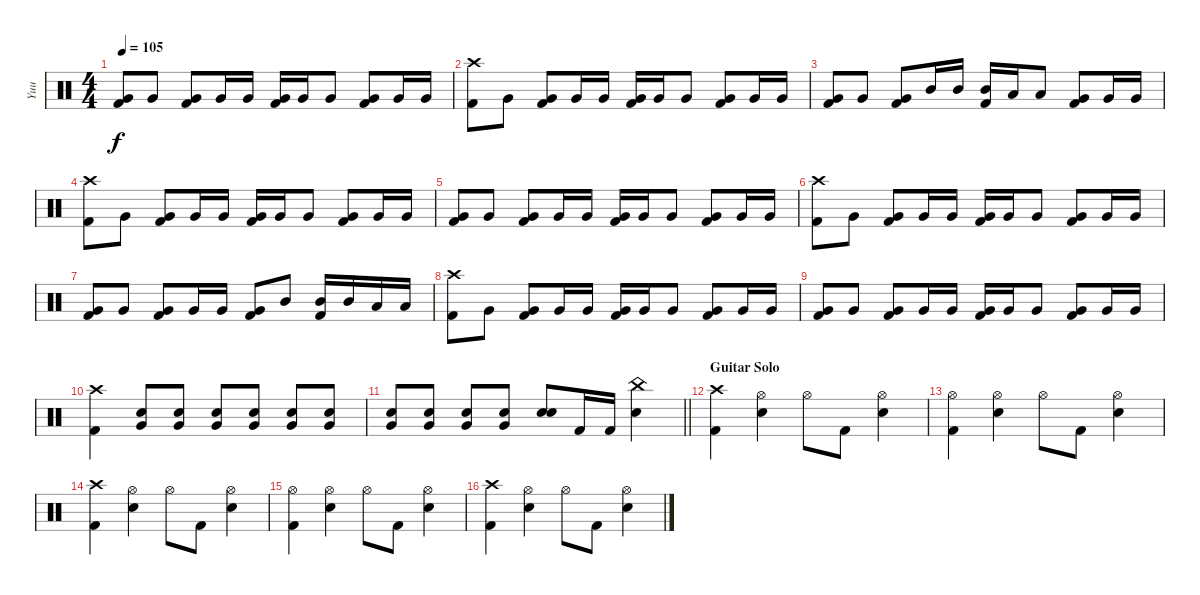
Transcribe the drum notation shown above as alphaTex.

\track ("Yuu" "Yuu") {instrument percussion}
\staff {score}
\articulation defaults
\ts (4 4)
\tempo 105
\clef neutral
\ks c
("Very Low Tom (hit)" "Kick (hit) 2").8{dy f} "Very Low Tom (hit)".8 ("Very Low Tom (hit)" "Kick (hit) 2").8 "Very Low Tom (hit)".16 "Very Low Tom (hit)".16 ("Very Low Tom (hit)" "Kick (hit) 2").16 "Very Low Tom (hit)".16 "Very Low Tom (hit)".8 ("Very Low Tom (hit)" "Kick (hit) 2").8 "Very Low Tom (hit)".16 "Very Low Tom (hit)".16 |
("Crash high (hit)" "Kick (hit) 2").8 "Very Low Tom (hit)".8 ("Very Low Tom (hit)" "Kick (hit) 2").8 "Very Low Tom (hit)".16 "Very Low Tom (hit)".16 ("Very Low Tom (hit)" "Kick (hit) 2").16 "Very Low Tom (hit)".16 "Very Low Tom (hit)".8 ("Very Low Tom (hit)" "Kick (hit) 2").8 "Very Low Tom (hit)".16 "Very Low Tom (hit)".16 |
("Very Low Tom (hit)" "Kick (hit) 2").8 "Very Low Tom (hit)".8 ("Very Low Tom (hit)" "Kick (hit) 2").8 "Mid Tom (hit)".16 "Mid Tom (hit)".16 ("Mid Tom (hit)" "Kick (hit) 2").16 "Low Tom (hit)".16 "Low Tom (hit)".8 ("Very Low Tom (hit)" "Kick (hit) 2").8 "Very Low Tom (hit)".16 "Very Low Tom (hit)".16 |
("Crash high (hit)" "Kick (hit) 2").8 "Very Low Tom (hit)".8 ("Very Low Tom (hit)" "Kick (hit) 2").8 "Very Low Tom (hit)".16 "Very Low Tom (hit)".16 ("Very Low Tom (hit)" "Kick (hit) 2").16 "Very Low Tom (hit)".16 "Very Low Tom (hit)".8 ("Very Low Tom (hit)" "Kick (hit) 2").8 "Very Low Tom (hit)".16 "Very Low Tom (hit)".16 |
("Very Low Tom (hit)" "Kick (hit) 2").8 "Very Low Tom (hit)".8 ("Very Low Tom (hit)" "Kick (hit) 2").8 "Very Low Tom (hit)".16 "Very Low Tom (hit)".16 ("Very Low Tom (hit)" "Kick (hit) 2").16 "Very Low Tom (hit)".16 "Very Low Tom (hit)".8 ("Very Low Tom (hit)" "Kick (hit) 2").8 "Very Low Tom (hit)".16 "Very Low Tom (hit)".16 |
("Crash high (hit)" "Kick (hit) 2").8 "Very Low Tom (hit)".8 ("Very Low Tom (hit)" "Kick (hit) 2").8 "Very Low Tom (hit)".16 "Very Low Tom (hit)".16 ("Very Low Tom (hit)" "Kick (hit) 2").16 "Very Low Tom (hit)".16 "Very Low Tom (hit)".8 ("Very Low Tom (hit)" "Kick (hit) 2").8 "Very Low Tom (hit)".16 "Very Low Tom (hit)".16 |
("Very Low Tom (hit)" "Kick (hit) 2").8 "Very Low Tom (hit)".8 ("Very Low Tom (hit)" "Kick (hit) 2").8 "Very Low Tom (hit)".16 "Very Low Tom (hit)".16 ("Very Low Tom (hit)" "Kick (hit) 2").8 "Mid Tom (hit)".8 ("Mid Tom (hit)" "Kick (hit) 2").16 "Mid Tom (hit)".16 "Low Tom (hit)".16 "Low Tom (hit)".16 |
("Crash high (hit)" "Kick (hit) 2").8 "Very Low Tom (hit)".8 ("Very Low Tom (hit)" "Kick (hit) 2").8 "Very Low Tom (hit)".16 "Very Low Tom (hit)".16 ("Very Low Tom (hit)" "Kick (hit) 2").16 "Very Low Tom (hit)".16 "Very Low Tom (hit)".8 ("Very Low Tom (hit)" "Kick (hit) 2").8 "Very Low Tom (hit)".16 "Very Low Tom (hit)".16 |
("Very Low Tom (hit)" "Kick (hit) 2").8 "Very Low Tom (hit)".8 ("Very Low Tom (hit)" "Kick (hit) 2").8 "Very Low Tom (hit)".16 "Very Low Tom (hit)".16 ("Very Low Tom (hit)" "Kick (hit) 2").16 "Very Low Tom (hit)".16 "Very Low Tom (hit)".8 ("Very Low Tom (hit)" "Kick (hit) 2").8 "Very Low Tom (hit)".16 "Very Low Tom (hit)".16 |
("Crash high (hit)" "Kick (hit) 2").4 ("Electric Snare (hit)" "Very Low Tom (hit)").8{volume 7} ("Electric Snare (hit)" "Very Low Tom (hit)").8{volume 13} ("Electric Snare (hit)" "Very Low Tom (hit)").8 ("Electric Snare (hit)" "Very Low Tom (hit)").8 ("Electric Snare (hit)" "Very Low Tom (hit)").8 ("Electric Snare (hit)" "Very Low Tom (hit)").8 |
\barLineRight lightlight
("Electric Snare (hit)" "Very Low Tom (hit)").8 ("Electric Snare (hit)" "Very Low Tom (hit)").8 ("Electric Snare (hit)" "Very Low Tom (hit)").8 ("Electric Snare (hit)" "Very Low Tom (hit)").8 ("Electric Snare (hit)" "Electric Snare (hit)").8 "Kick (hit) 2".16 "Kick (hit) 2".16 ("China (hit)" "Electric Snare (hit)").4 |
\section ("" "Guitar Solo")
("Crash high (hit)" "Kick (hit) 2").4 ("Hi-Hat (open)" "Electric Snare (hit)").4 "Hi-Hat (open)".8 "Kick (hit) 2".8 ("Hi-Hat (open)" "Electric Snare (hit)").4 |
("Hi-Hat (open)" "Kick (hit) 2").4 ("Hi-Hat (open)" "Electric Snare (hit)").4 "Hi-Hat (open)".8 "Kick (hit) 2".8 ("Hi-Hat (open)" "Electric Snare (hit)").4 |
("Crash high (hit)" "Kick (hit) 2").4 ("Hi-Hat (open)" "Electric Snare (hit)").4 "Hi-Hat (open)".8 "Kick (hit) 2".8 ("Hi-Hat (open)" "Electric Snare (hit)").4 |
("Hi-Hat (open)" "Kick (hit) 2").4 ("Hi-Hat (open)" "Electric Snare (hit)").4 "Hi-Hat (open)".8 "Kick (hit) 2".8 ("Hi-Hat (open)" "Electric Snare (hit)").4 |
("Crash high (hit)" "Kick (hit) 2").4 ("Hi-Hat (open)" "Electric Snare (hit)").4 "Hi-Hat (open)".8 "Kick (hit) 2".8 ("Hi-Hat (open)" "Electric Snare (hit)").4
